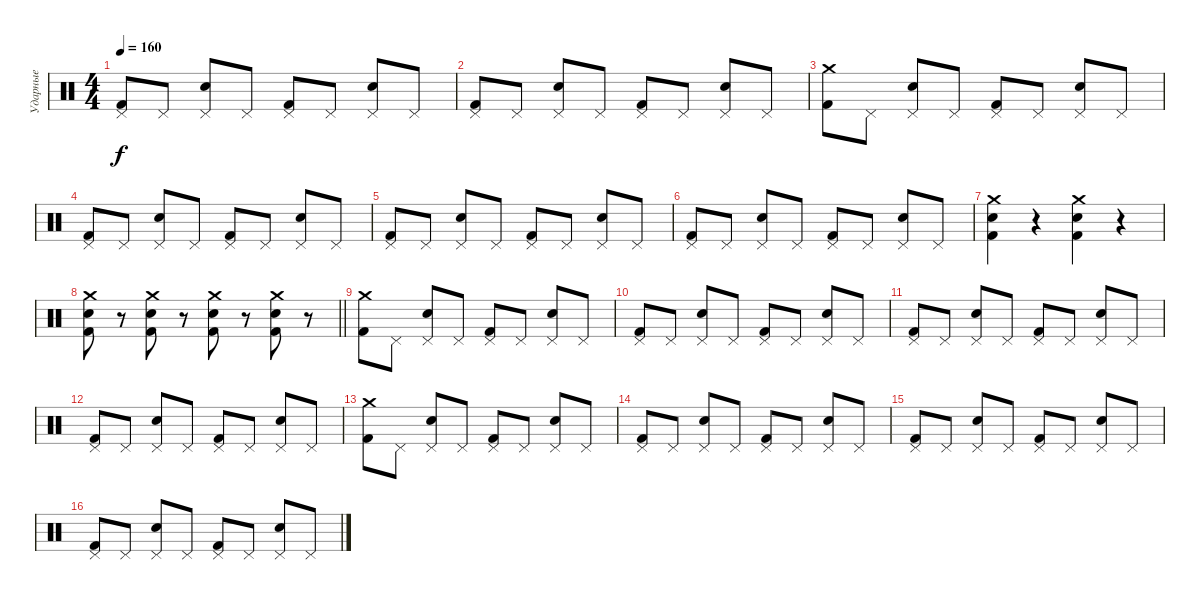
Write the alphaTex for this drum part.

\track ("Ударные" "Ударные") {instrument percussion}
\staff {score}
\articulation defaults
\ts (4 4)
\tempo 160
\clef neutral
\ks c
("Pedal Hi-Hat (hit)" "Kick (hit) 2").8{dy f} "Pedal Hi-Hat (hit)".8 ("Pedal Hi-Hat (hit)" "Snare (hit) 2").8 "Pedal Hi-Hat (hit)".8 ("Pedal Hi-Hat (hit)" "Kick (hit) 2").8 "Pedal Hi-Hat (hit)".8 ("Pedal Hi-Hat (hit)" "Snare (hit) 2").8 "Pedal Hi-Hat (hit)".8 |
("Pedal Hi-Hat (hit)" "Kick (hit) 2").8 "Pedal Hi-Hat (hit)".8 ("Pedal Hi-Hat (hit)" "Snare (hit) 2").8 "Pedal Hi-Hat (hit)".8 ("Pedal Hi-Hat (hit)" "Kick (hit) 2").8 "Pedal Hi-Hat (hit)".8 ("Pedal Hi-Hat (hit)" "Snare (hit) 2").8 "Pedal Hi-Hat (hit)".8 |
("Crash medium (hit)" "Kick (hit) 2").8 "Pedal Hi-Hat (hit)".8 ("Pedal Hi-Hat (hit)" "Snare (hit) 2").8 "Pedal Hi-Hat (hit)".8 ("Pedal Hi-Hat (hit)" "Kick (hit) 2").8 "Pedal Hi-Hat (hit)".8 ("Pedal Hi-Hat (hit)" "Snare (hit) 2").8 "Pedal Hi-Hat (hit)".8 |
("Pedal Hi-Hat (hit)" "Kick (hit) 2").8 "Pedal Hi-Hat (hit)".8 ("Pedal Hi-Hat (hit)" "Snare (hit) 2").8 "Pedal Hi-Hat (hit)".8 ("Pedal Hi-Hat (hit)" "Kick (hit) 2").8 "Pedal Hi-Hat (hit)".8 ("Pedal Hi-Hat (hit)" "Snare (hit) 2").8 "Pedal Hi-Hat (hit)".8 |
("Pedal Hi-Hat (hit)" "Kick (hit) 2").8 "Pedal Hi-Hat (hit)".8 ("Pedal Hi-Hat (hit)" "Snare (hit) 2").8 "Pedal Hi-Hat (hit)".8 ("Pedal Hi-Hat (hit)" "Kick (hit) 2").8 "Pedal Hi-Hat (hit)".8 ("Pedal Hi-Hat (hit)" "Snare (hit) 2").8 "Pedal Hi-Hat (hit)".8 |
("Pedal Hi-Hat (hit)" "Kick (hit) 2").8 "Pedal Hi-Hat (hit)".8 ("Pedal Hi-Hat (hit)" "Snare (hit) 2").8 "Pedal Hi-Hat (hit)".8 ("Pedal Hi-Hat (hit)" "Kick (hit) 2").8 "Pedal Hi-Hat (hit)".8 ("Pedal Hi-Hat (hit)" "Snare (hit) 2").8 "Pedal Hi-Hat (hit)".8 |
("Crash medium (hit)" "Kick (hit) 2" "Snare (hit) 2").4 r.4 ("Crash medium (hit)" "Kick (hit) 2" "Snare (hit) 2").4 r.4 |
\barLineRight lightlight
("Crash medium (hit)" "Kick (hit) 2" "Snare (hit) 2").8 r.8 ("Crash medium (hit)" "Kick (hit) 2" "Snare (hit) 2").8 r.8 ("Crash medium (hit)" "Kick (hit) 2" "Snare (hit) 2").8 r.8 ("Crash medium (hit)" "Kick (hit) 2" "Snare (hit) 2").8 r.8 |
("Crash medium (hit)" "Kick (hit) 2").8 "Pedal Hi-Hat (hit)".8 ("Pedal Hi-Hat (hit)" "Snare (hit) 2").8 "Pedal Hi-Hat (hit)".8 ("Pedal Hi-Hat (hit)" "Kick (hit) 2").8 "Pedal Hi-Hat (hit)".8 ("Pedal Hi-Hat (hit)" "Snare (hit) 2").8 "Pedal Hi-Hat (hit)".8 |
("Pedal Hi-Hat (hit)" "Kick (hit) 2").8 "Pedal Hi-Hat (hit)".8 ("Pedal Hi-Hat (hit)" "Snare (hit) 2").8 "Pedal Hi-Hat (hit)".8 ("Pedal Hi-Hat (hit)" "Kick (hit) 2").8 "Pedal Hi-Hat (hit)".8 ("Pedal Hi-Hat (hit)" "Snare (hit) 2").8 "Pedal Hi-Hat (hit)".8 |
("Pedal Hi-Hat (hit)" "Kick (hit) 2").8 "Pedal Hi-Hat (hit)".8 ("Pedal Hi-Hat (hit)" "Snare (hit) 2").8 "Pedal Hi-Hat (hit)".8 ("Pedal Hi-Hat (hit)" "Kick (hit) 2").8 "Pedal Hi-Hat (hit)".8 ("Pedal Hi-Hat (hit)" "Snare (hit) 2").8 "Pedal Hi-Hat (hit)".8 |
("Pedal Hi-Hat (hit)" "Kick (hit) 2").8 "Pedal Hi-Hat (hit)".8 ("Pedal Hi-Hat (hit)" "Snare (hit) 2").8 "Pedal Hi-Hat (hit)".8 ("Pedal Hi-Hat (hit)" "Kick (hit) 2").8 "Pedal Hi-Hat (hit)".8 ("Pedal Hi-Hat (hit)" "Snare (hit) 2").8 "Pedal Hi-Hat (hit)".8 |
("Crash medium (hit)" "Kick (hit) 2").8 "Pedal Hi-Hat (hit)".8 ("Pedal Hi-Hat (hit)" "Snare (hit) 2").8 "Pedal Hi-Hat (hit)".8 ("Pedal Hi-Hat (hit)" "Kick (hit) 2").8 "Pedal Hi-Hat (hit)".8 ("Pedal Hi-Hat (hit)" "Snare (hit) 2").8 "Pedal Hi-Hat (hit)".8 |
("Pedal Hi-Hat (hit)" "Kick (hit) 2").8 "Pedal Hi-Hat (hit)".8 ("Pedal Hi-Hat (hit)" "Snare (hit) 2").8 "Pedal Hi-Hat (hit)".8 ("Pedal Hi-Hat (hit)" "Kick (hit) 2").8 "Pedal Hi-Hat (hit)".8 ("Pedal Hi-Hat (hit)" "Snare (hit) 2").8 "Pedal Hi-Hat (hit)".8 |
("Pedal Hi-Hat (hit)" "Kick (hit) 2").8 "Pedal Hi-Hat (hit)".8 ("Pedal Hi-Hat (hit)" "Snare (hit) 2").8 "Pedal Hi-Hat (hit)".8 ("Pedal Hi-Hat (hit)" "Kick (hit) 2").8 "Pedal Hi-Hat (hit)".8 ("Pedal Hi-Hat (hit)" "Snare (hit) 2").8 "Pedal Hi-Hat (hit)".8 |
("Pedal Hi-Hat (hit)" "Kick (hit) 2").8 "Pedal Hi-Hat (hit)".8 ("Pedal Hi-Hat (hit)" "Snare (hit) 2").8 "Pedal Hi-Hat (hit)".8 ("Pedal Hi-Hat (hit)" "Kick (hit) 2").8 "Pedal Hi-Hat (hit)".8 ("Pedal Hi-Hat (hit)" "Snare (hit) 2").8 "Pedal Hi-Hat (hit)".8
